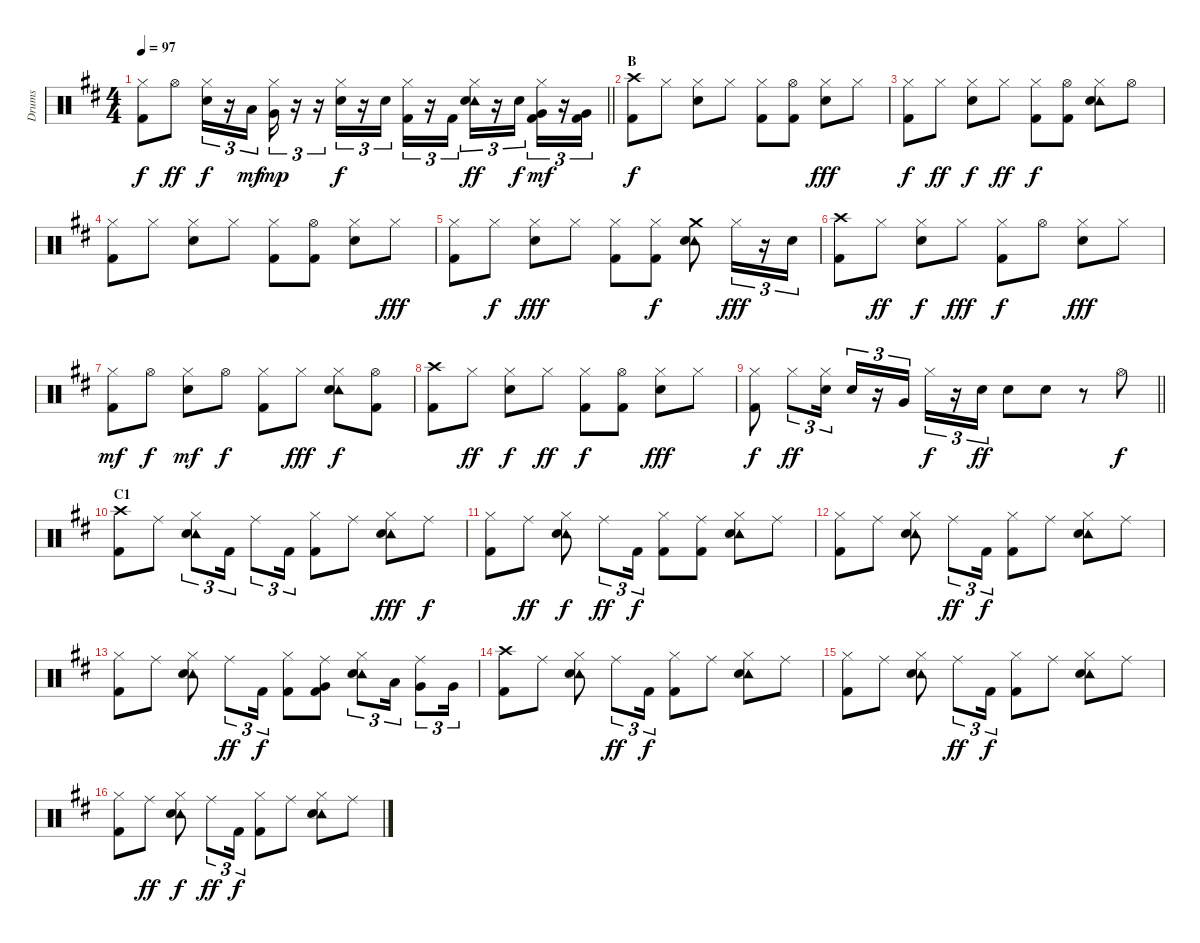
\track ("Drums" "Drums") {instrument percussion}
\staff {score}
\articulation defaults
\ts (4 4)
\tempo 97
\clef neutral
\barLineRight lightlight
\ks d
("Hi-Hat (closed)" "Kick (hit) 2").8{dy f} "Hi-Hat (open)".8{dy ff} ("Hi-Hat (closed)" "Electric Snare (hit)").16{tu (3 2) dy f} r.16{tu (3 2)} "Low Tom (hit)".16{tu (3 2) dy mf} ("Hi-Hat (closed)" "Very Low Tom (hit)").16{tu (3 2) dy mp} r.16{tu (3 2)} r.16{tu (3 2)} ("Hi-Hat (closed)" "Electric Snare (hit)").16{tu (3 2) dy f} r.16{tu (3 2)} "Electric Snare (hit)".16{tu (3 2)} ("Hi-Hat (closed)" "Kick (hit) 2").16{tu (3 2)} r.16{tu (3 2)} "Kick (hit) 2".16{tu (3 2)} ("Hi-Hat (closed)" "Tambourine (hit)" "Electric Snare (hit)").16{tu (3 2) dy ff} r.16{tu (3 2)} "Electric Snare (hit)".16{tu (3 2) dy f} ("Hi-Hat (closed)" "Very Low Tom (hit)" "Kick (hit) 2").16{tu (3 2) dy mf} r.16{tu (3 2)} ("Very Low Tom (hit)" "Kick (hit) 2").16{tu (3 2)} |
\section ("" "B")
("Crash high (hit)" "Kick (hit) 2").8{dy f} "Hi-Hat (closed)".8 ("Hi-Hat (closed)" "Electric Snare (hit)").8 "Hi-Hat (closed)".8 ("Hi-Hat (closed)" "Kick (hit) 2").8 ("Hi-Hat (open)" "Kick (hit) 2").8 ("Hi-Hat (closed)" "Electric Snare (hit)").8{dy fff} "Hi-Hat (closed)".8 |
("Hi-Hat (closed)" "Kick (hit) 2").8{dy f} "Hi-Hat (closed)".8{dy ff} ("Hi-Hat (closed)" "Electric Snare (hit)").8{dy f} "Hi-Hat (closed)".8{dy ff} ("Hi-Hat (closed)" "Kick (hit) 2").8{dy f} ("Hi-Hat (open)" "Kick (hit) 2").8 ("Hi-Hat (closed)" "Tambourine (hit)" "Electric Snare (hit)").8 "Hi-Hat (open)".8 |
("Hi-Hat (closed)" "Kick (hit) 2").8 "Hi-Hat (closed)".8 ("Hi-Hat (closed)" "Electric Snare (hit)").8 "Hi-Hat (closed)".8 ("Hi-Hat (closed)" "Kick (hit) 2").8 ("Hi-Hat (open)" "Kick (hit) 2").8 ("Hi-Hat (closed)" "Electric Snare (hit)").8 "Hi-Hat (closed)".8{dy fff} |
("Hi-Hat (closed)" "Kick (hit) 2").8 "Hi-Hat (closed)".8{dy f} ("Hi-Hat (closed)" "Electric Snare (hit)").8{dy fff} "Hi-Hat (closed)".8 ("Hi-Hat (closed)" "Kick (hit) 2").8 ("Hi-Hat (closed)" "Kick (hit) 2").8{dy f} ("Crash medium (hit)" "Tambourine (hit)" "Electric Snare (hit)").8 "Hi-Hat (closed)".16{tu (3 2) dy fff} r.16{tu (3 2)} "Electric Snare (hit)".16{tu (3 2)} |
("Crash high (hit)" "Kick (hit) 2").8 "Hi-Hat (closed)".8{dy ff} ("Hi-Hat (closed)" "Electric Snare (hit)").8{dy f} "Hi-Hat (closed)".8{dy fff} ("Hi-Hat (closed)" "Kick (hit) 2").8{dy f} "Hi-Hat (open)".8 ("Hi-Hat (closed)" "Electric Snare (hit)").8{dy fff} "Hi-Hat (closed)".8 |
("Hi-Hat (closed)" "Kick (hit) 2").8{dy mf} "Hi-Hat (open)".8{dy f} ("Hi-Hat (closed)" "Electric Snare (hit)").8{dy mf} "Hi-Hat (open)".8{dy f} ("Hi-Hat (closed)" "Kick (hit) 2").8 "Hi-Hat (closed)".8{dy fff} ("Hi-Hat (closed)" "Tambourine (hit)" "Electric Snare (hit)").8{dy f} ("Hi-Hat (open)" "Kick (hit) 2").8 |
("Crash high (hit)" "Kick (hit) 2").8 "Hi-Hat (closed)".8{dy ff} ("Hi-Hat (closed)" "Electric Snare (hit)").8{dy f} "Hi-Hat (closed)".8{dy ff} ("Hi-Hat (closed)" "Kick (hit) 2").8{dy f} ("Hi-Hat (open)" "Kick (hit) 2").8 ("Hi-Hat (closed)" "Electric Snare (hit)").8{dy fff} "Hi-Hat (closed)".8 |
\barLineRight lightlight
("Hi-Hat (closed)" "Kick (hit) 2").8{dy f} "Hi-Hat (closed)".8{tu (3 2) dy ff} ("Hi-Hat (closed)" "Electric Snare (hit)").16{tu (3 2)} "Electric Snare (hit)".16{tu (3 2)} r.16{tu (3 2)} "Very Low Tom (hit)".16{tu (3 2)} "Hi-Hat (closed)".16{tu (3 2) dy f} r.16{tu (3 2)} "Electric Snare (hit)".16{tu (3 2) dy ff} "Electric Snare (hit)".8 "Electric Snare (hit)".8 r.8 "Hi-Hat (open)".8{dy f} |
\section ("" "C1")
("Crash high (hit)" "Kick (hit) 2").8 "Ride (middle)".8 ("Hi-Hat (closed)" "Tambourine (hit)" "Electric Snare (hit)").8{tu (3 2)} "Kick (hit) 2".16{tu (3 2)} "Ride (middle)".8{tu (3 2)} "Kick (hit) 2".16{tu (3 2)} ("Hi-Hat (closed)" "Kick (hit) 2").8 "Ride (middle)".8 ("Hi-Hat (closed)" "Tambourine (hit)" "Electric Snare (hit)").8{dy fff} "Ride (middle)".8{dy f} |
("Hi-Hat (closed)" "Kick (hit) 2").8 "Ride (middle)".8{dy ff} ("Hi-Hat (closed)" "Tambourine (hit)" "Electric Snare (hit)").8{dy f} "Ride (middle)".8{tu (3 2) dy ff} "Kick (hit) 2".16{tu (3 2) dy f} ("Hi-Hat (closed)" "Kick (hit) 2").8 ("Ride (middle)" "Kick (hit) 2").8 ("Hi-Hat (closed)" "Tambourine (hit)" "Electric Snare (hit)").8 "Ride (middle)".8 |
("Hi-Hat (closed)" "Kick (hit) 2").8 "Ride (middle)".8 ("Hi-Hat (closed)" "Tambourine (hit)" "Electric Snare (hit)").8 "Ride (middle)".8{tu (3 2) dy ff} "Kick (hit) 2".16{tu (3 2) dy f} ("Hi-Hat (closed)" "Kick (hit) 2").8 "Ride (middle)".8 ("Hi-Hat (closed)" "Tambourine (hit)" "Electric Snare (hit)").8 "Ride (middle)".8 |
("Hi-Hat (closed)" "Kick (hit) 2").8 "Ride (middle)".8 ("Hi-Hat (closed)" "Tambourine (hit)" "Electric Snare (hit)").8 "Ride (middle)".8{tu (3 2) dy ff} "Kick (hit) 2".16{tu (3 2) dy f} ("Hi-Hat (closed)" "Kick (hit) 2").8 ("Ride (middle)" "Very Low Tom (hit)" "Kick (hit) 2").8 ("Hi-Hat (closed)" "Tambourine (hit)" "Electric Snare (hit)").8{tu (3 2)} "Low Tom (hit)".16{tu (3 2)} ("Ride (middle)" "Very Low Tom (hit)").8{tu (3 2)} "Very Low Tom (hit)".16{tu (3 2)} |
("Crash high (hit)" "Kick (hit) 2").8 "Ride (middle)".8 ("Hi-Hat (closed)" "Tambourine (hit)" "Electric Snare (hit)").8 "Ride (middle)".8{tu (3 2) dy ff} "Kick (hit) 2".16{tu (3 2) dy f} ("Hi-Hat (closed)" "Kick (hit) 2").8 "Ride (middle)".8 ("Hi-Hat (closed)" "Tambourine (hit)" "Electric Snare (hit)").8 "Ride (middle)".8 |
("Hi-Hat (closed)" "Kick (hit) 2").8 "Ride (middle)".8 ("Hi-Hat (closed)" "Tambourine (hit)" "Electric Snare (hit)").8 "Ride (middle)".8{tu (3 2) dy ff} "Kick (hit) 2".16{tu (3 2) dy f} ("Hi-Hat (closed)" "Kick (hit) 2").8 "Ride (middle)".8 ("Hi-Hat (closed)" "Tambourine (hit)" "Electric Snare (hit)").8 "Ride (middle)".8 |
("Hi-Hat (closed)" "Kick (hit) 2").8 "Ride (middle)".8{dy ff} ("Hi-Hat (closed)" "Tambourine (hit)" "Electric Snare (hit)").8{dy f} "Ride (middle)".8{tu (3 2) dy ff} "Kick (hit) 2".16{tu (3 2) dy f} ("Hi-Hat (closed)" "Kick (hit) 2").8 "Ride (middle)".8 ("Hi-Hat (closed)" "Tambourine (hit)" "Electric Snare (hit)").8 "Ride (middle)".8
